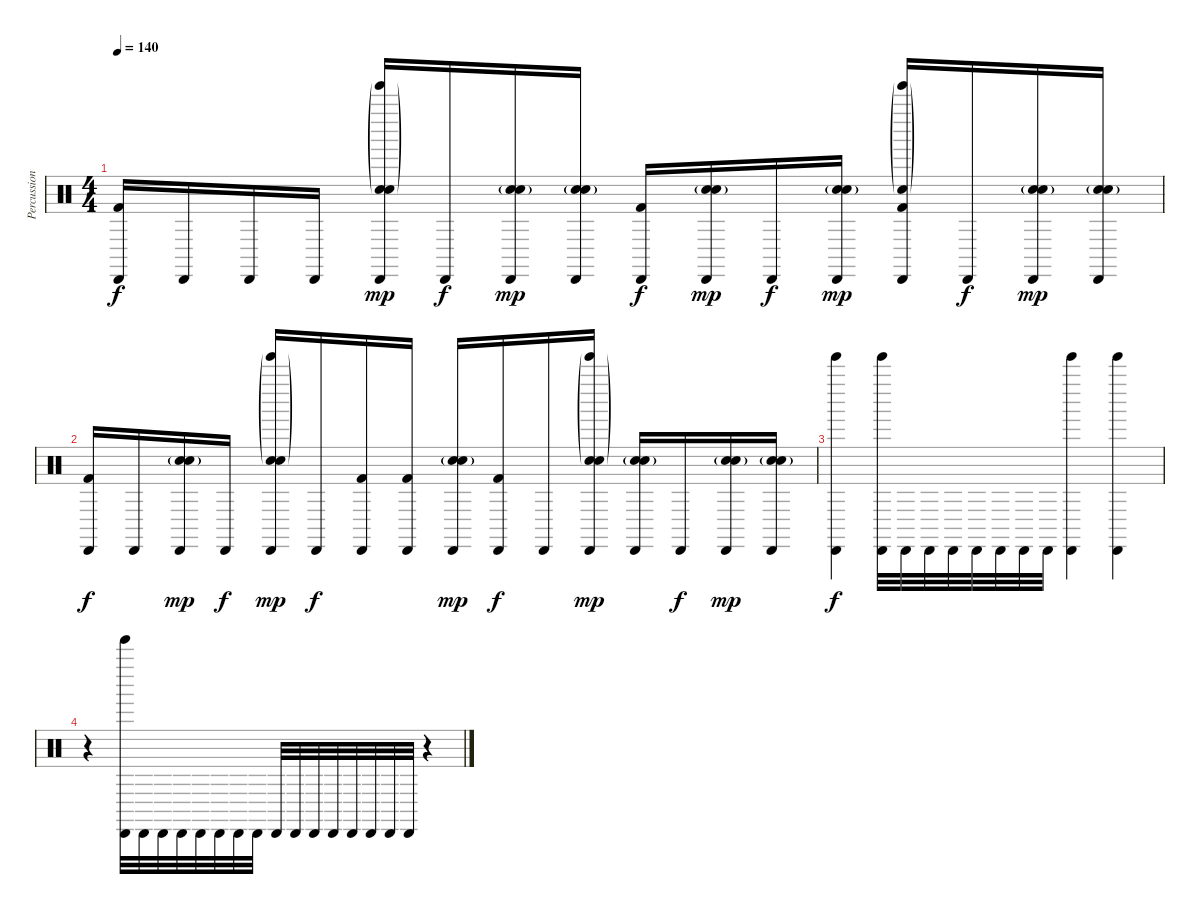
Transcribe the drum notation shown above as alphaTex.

\track ("Percussion" "Percussion") {instrument percussion}
\staff {score}
\articulation defaults
\ts (4 4)
\tempo 140
\clef neutral
\ks c
("Cabasa (hit)" "Kick (hit) 2").16{dy f} "Cabasa (hit)".16 "Cabasa (hit)".16 "Cabasa (hit)".16 ("Tinkle Bell (hit)"{g} "Cabasa (hit)" "Snare (hit) 2"{g} "Electric Snare (hit)").16{dy mp} "Cabasa (hit)".16{dy f} ("Cabasa (hit)" "Snare (hit) 2"{g} "Electric Snare (hit)").16{dy mp} ("Cabasa (hit)" "Snare (hit) 2"{g} "Electric Snare (hit)").16 ("Cabasa (hit)" "Kick (hit) 2").16{dy f} ("Cabasa (hit)" "Electric Snare (hit)" "Snare (hit) 2"{g}).16{dy mp} "Cabasa (hit)".16{dy f} ("Cabasa (hit)" "Snare (hit) 2"{g} "Electric Snare (hit)").16{dy mp} ("Tinkle Bell (hit)"{g} "Cabasa (hit)" "Snare (hit) 2"{g} "Kick (hit) 2").16 "Cabasa (hit)".16{dy f} ("Cabasa (hit)" "Electric Snare (hit)" "Snare (hit) 2"{g}).16{dy mp} ("Cabasa (hit)" "Electric Snare (hit)" "Snare (hit) 2"{g}).16 |
("Cabasa (hit)" "Kick (hit) 2").16{dy f} "Cabasa (hit)".16 ("Cabasa (hit)" "Snare (hit) 2"{g} "Electric Snare (hit)").16{dy mp} "Cabasa (hit)".16{dy f} ("Tinkle Bell (hit)"{g} "Cabasa (hit)" "Snare (hit) 2"{g} "Electric Snare (hit)").16{dy mp} "Cabasa (hit)".16{dy f} ("Cabasa (hit)" "Kick (hit) 2").16 ("Cabasa (hit)" "Kick (hit) 2").16 ("Cabasa (hit)" "Snare (hit) 2"{g} "Electric Snare (hit)").16{dy mp} ("Cabasa (hit)" "Kick (hit) 2").16{dy f} "Cabasa (hit)".16 ("Tinkle Bell (hit)"{g} "Cabasa (hit)" "Snare (hit) 2"{g} "Electric Snare (hit)").16{dy mp} ("Cabasa (hit)" "Snare (hit) 2"{g} "Electric Snare (hit)").16 "Cabasa (hit)".16{dy f} ("Cabasa (hit)" "Electric Snare (hit)" "Snare (hit) 2"{g}).16{dy mp} ("Cabasa (hit)" "Electric Snare (hit)" "Snare (hit) 2"{g}).16 |
("Tinkle Bell (hit)" "Cabasa (hit)").4{dy f} ("Tinkle Bell (hit)" "Cabasa (hit)").32 "Cabasa (hit)".32 "Cabasa (hit)".32 "Cabasa (hit)".32 "Cabasa (hit)".32 "Cabasa (hit)".32 "Cabasa (hit)".32 "Cabasa (hit)".32 ("Tinkle Bell (hit)" "Cabasa (hit)").4 ("Tinkle Bell (hit)" "Cabasa (hit)").4 |
r.4 ("Cabasa (hit)" "Tinkle Bell (hit)").32 "Cabasa (hit)".32 "Cabasa (hit)".32 "Cabasa (hit)".32 "Cabasa (hit)".32 "Cabasa (hit)".32 "Cabasa (hit)".32 "Cabasa (hit)".32 "Cabasa (hit)".32 "Cabasa (hit)".32 "Cabasa (hit)".32 "Cabasa (hit)".32 "Cabasa (hit)".32 "Cabasa (hit)".32 "Cabasa (hit)".32 "Cabasa (hit)".32 r.4
